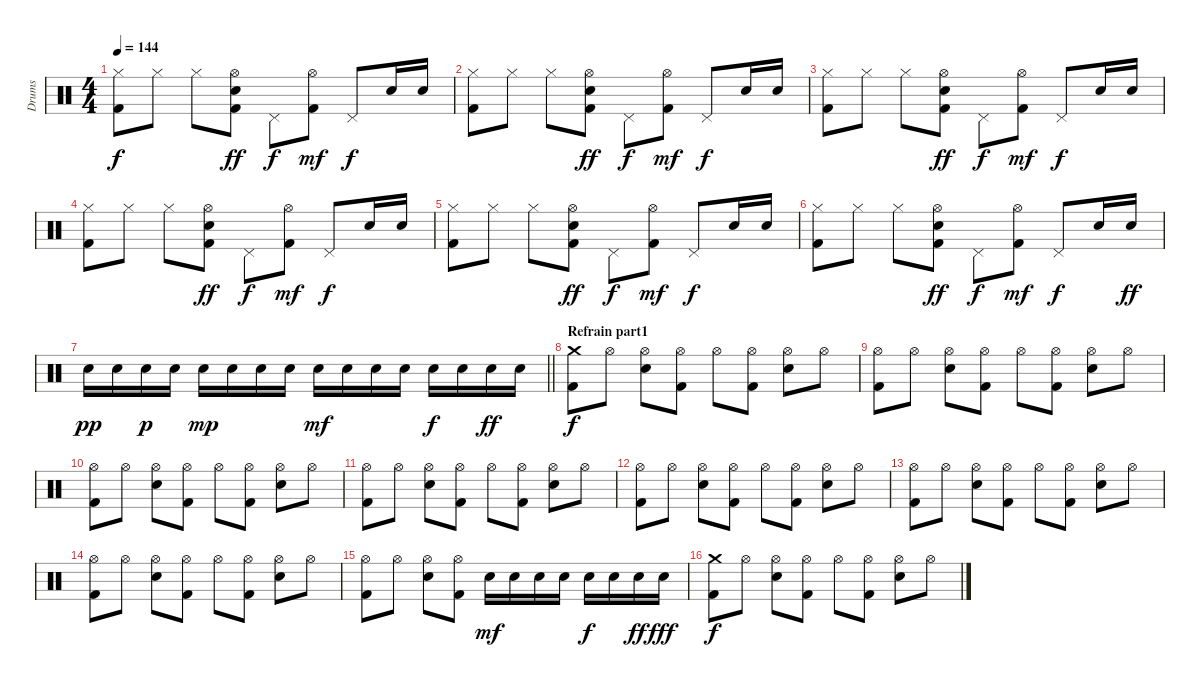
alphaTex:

\track ("Drums" "Drums") {instrument percussion}
\staff {score}
\articulation defaults
\ts (4 4)
\tempo 144
\clef neutral
\ks c
("Hi-Hat (closed)" "Kick (hit) 2").8{dy f} "Hi-Hat (closed)".8 "Hi-Hat (closed)".8 ("Hi-Hat (open)" "Electric Snare (hit)" "Kick (hit) 2").8{dy ff} "Pedal Hi-Hat (hit)".8{dy f} ("Hi-Hat (open)" "Kick (hit) 2").8{dy mf} "Pedal Hi-Hat (hit)".8{dy f} "Electric Snare (hit)".16 "Electric Snare (hit)".16 |
("Hi-Hat (closed)" "Kick (hit) 2").8 "Hi-Hat (closed)".8 "Hi-Hat (closed)".8 ("Hi-Hat (open)" "Electric Snare (hit)" "Kick (hit) 2").8{dy ff} "Pedal Hi-Hat (hit)".8{dy f} ("Hi-Hat (open)" "Kick (hit) 2").8{dy mf} "Pedal Hi-Hat (hit)".8{dy f} "Electric Snare (hit)".16 "Electric Snare (hit)".16 |
("Hi-Hat (closed)" "Kick (hit) 2").8 "Hi-Hat (closed)".8 "Hi-Hat (closed)".8 ("Hi-Hat (open)" "Electric Snare (hit)" "Kick (hit) 2").8{dy ff} "Pedal Hi-Hat (hit)".8{dy f} ("Hi-Hat (open)" "Kick (hit) 2").8{dy mf} "Pedal Hi-Hat (hit)".8{dy f} "Electric Snare (hit)".16 "Electric Snare (hit)".16 |
("Hi-Hat (closed)" "Kick (hit) 2").8 "Hi-Hat (closed)".8 "Hi-Hat (closed)".8 ("Hi-Hat (open)" "Electric Snare (hit)" "Kick (hit) 2").8{dy ff} "Pedal Hi-Hat (hit)".8{dy f} ("Hi-Hat (open)" "Kick (hit) 2").8{dy mf} "Pedal Hi-Hat (hit)".8{dy f} "Electric Snare (hit)".16 "Electric Snare (hit)".16 |
("Hi-Hat (closed)" "Kick (hit) 2").8 "Hi-Hat (closed)".8 "Hi-Hat (closed)".8 ("Hi-Hat (open)" "Electric Snare (hit)" "Kick (hit) 2").8{dy ff} "Pedal Hi-Hat (hit)".8{dy f} ("Hi-Hat (open)" "Kick (hit) 2").8{dy mf} "Pedal Hi-Hat (hit)".8{dy f} "Electric Snare (hit)".16 "Electric Snare (hit)".16 |
("Hi-Hat (closed)" "Kick (hit) 2").8 "Hi-Hat (closed)".8 "Hi-Hat (closed)".8 ("Hi-Hat (open)" "Electric Snare (hit)" "Kick (hit) 2").8{dy ff} "Pedal Hi-Hat (hit)".8{dy f} ("Hi-Hat (open)" "Kick (hit) 2").8{dy mf} "Pedal Hi-Hat (hit)".8{dy f} "Electric Snare (hit)".16 "Electric Snare (hit)".16{dy ff} |
\barLineRight lightlight "Electric Snare (hit)".16{dy pp} "Electric Snare (hit)".16 "Electric Snare (hit)".16{dy p} "Electric Snare (hit)".16 "Electric Snare (hit)".16{dy mp} "Electric Snare (hit)".16 "Electric Snare (hit)".16 "Electric Snare (hit)".16 "Electric Snare (hit)".16{dy mf} "Electric Snare (hit)".16 "Electric Snare (hit)".16 "Electric Snare (hit)".16 "Electric Snare (hit)".16{dy f} "Electric Snare (hit)".16 "Electric Snare (hit)".16{dy ff} "Electric Snare (hit)".16
|
\section ("" "Refrain part1")
("Crash medium (hit)" "Kick (hit) 2").8{dy f} "Hi-Hat (open)".8 ("Hi-Hat (open)" "Electric Snare (hit)").8 ("Hi-Hat (open)" "Kick (hit) 2").8 "Hi-Hat (open)".8 ("Hi-Hat (open)" "Kick (hit) 2").8 ("Hi-Hat (open)" "Electric Snare (hit)").8 "Hi-Hat (open)".8 |
("Hi-Hat (open)" "Kick (hit) 2").8 "Hi-Hat (open)".8 ("Hi-Hat (open)" "Electric Snare (hit)").8 ("Hi-Hat (open)" "Kick (hit) 2").8 "Hi-Hat (open)".8 ("Hi-Hat (open)" "Kick (hit) 2").8 ("Hi-Hat (open)" "Electric Snare (hit)").8 "Hi-Hat (open)".8 |
("Hi-Hat (open)" "Kick (hit) 2").8 "Hi-Hat (open)".8 ("Hi-Hat (open)" "Electric Snare (hit)").8 ("Hi-Hat (open)" "Kick (hit) 2").8 "Hi-Hat (open)".8 ("Hi-Hat (open)" "Kick (hit) 2").8 ("Hi-Hat (open)" "Electric Snare (hit)").8 "Hi-Hat (open)".8 |
("Hi-Hat (open)" "Kick (hit) 2").8 "Hi-Hat (open)".8 ("Hi-Hat (open)" "Electric Snare (hit)").8 ("Hi-Hat (open)" "Kick (hit) 2").8 "Hi-Hat (open)".8 ("Hi-Hat (open)" "Kick (hit) 2").8 ("Hi-Hat (open)" "Electric Snare (hit)").8 "Hi-Hat (open)".8 |
("Hi-Hat (open)" "Kick (hit) 2").8 "Hi-Hat (open)".8 ("Hi-Hat (open)" "Electric Snare (hit)").8 ("Hi-Hat (open)" "Kick (hit) 2").8 "Hi-Hat (open)".8 ("Hi-Hat (open)" "Kick (hit) 2").8 ("Hi-Hat (open)" "Electric Snare (hit)").8 "Hi-Hat (open)".8 |
("Hi-Hat (open)" "Kick (hit) 2").8 "Hi-Hat (open)".8 ("Hi-Hat (open)" "Electric Snare (hit)").8 ("Hi-Hat (open)" "Kick (hit) 2").8 "Hi-Hat (open)".8 ("Hi-Hat (open)" "Kick (hit) 2").8 ("Hi-Hat (open)" "Electric Snare (hit)").8 "Hi-Hat (open)".8 |
("Hi-Hat (open)" "Kick (hit) 2").8 "Hi-Hat (open)".8 ("Hi-Hat (open)" "Electric Snare (hit)").8 ("Hi-Hat (open)" "Kick (hit) 2").8 "Hi-Hat (open)".8 ("Hi-Hat (open)" "Kick (hit) 2").8 ("Hi-Hat (open)" "Electric Snare (hit)").8 "Hi-Hat (open)".8 |
("Hi-Hat (open)" "Kick (hit) 2").8 "Hi-Hat (open)".8 ("Hi-Hat (open)" "Electric Snare (hit)").8 ("Hi-Hat (open)" "Kick (hit) 2").8 "Electric Snare (hit)".16{dy mf} "Electric Snare (hit)".16 "Electric Snare (hit)".16 "Electric Snare (hit)".16 "Electric Snare (hit)".16{dy f} "Electric Snare (hit)".16 "Electric Snare (hit)".16{dy ff} "Electric Snare (hit)".16{dy fff} |
("Crash medium (hit)" "Kick (hit) 2").8{dy f} "Hi-Hat (open)".8 ("Hi-Hat (open)" "Electric Snare (hit)").8 ("Hi-Hat (open)" "Kick (hit) 2").8 "Hi-Hat (open)".8 ("Hi-Hat (open)" "Kick (hit) 2").8 ("Hi-Hat (open)" "Electric Snare (hit)").8 "Hi-Hat (open)".8
